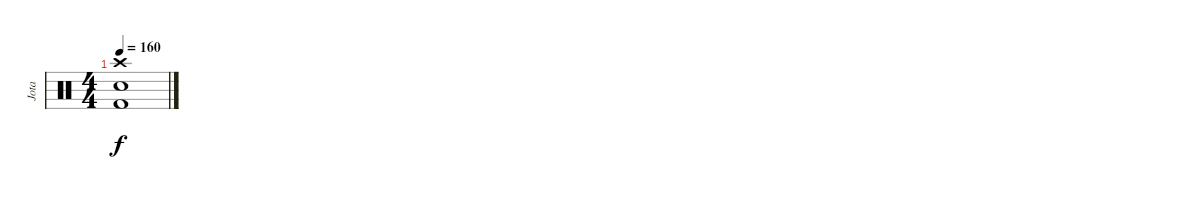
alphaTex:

\track ("Jota" "Jota") {instrument percussion}
\staff {score}
\articulation defaults
\ts (4 4)
\tempo 160
\clef neutral
\ks c
("Crash high (hit)" "Electric Snare (hit)" "Kick (hit) 2").1{dy f}
